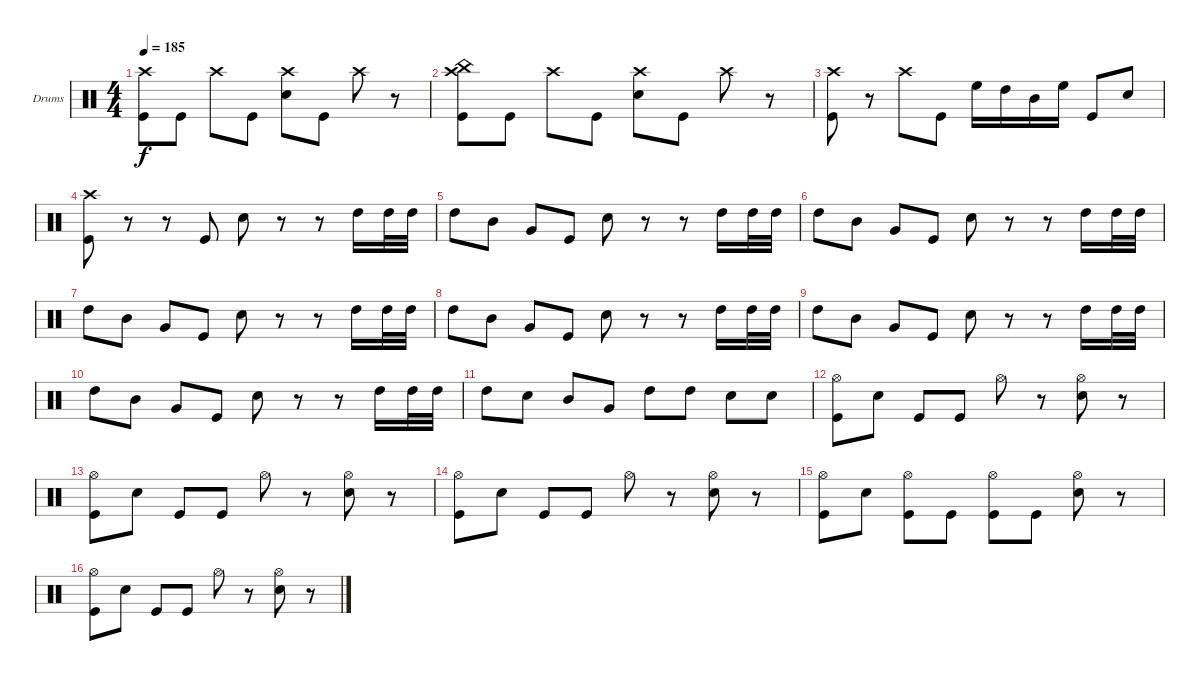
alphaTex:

\defaultSystemsLayout 4
\bracketExtendMode nobrackets
\firstSystemTrackNameOrientation horizontal
\otherSystemsTrackNameOrientation horizontal
\track ("Drumkit" "Drums") {instrument percussion}
\staff {score}
\articulation defaults
\ts (4 4)
\tempo 185
\clef neutral
\ks c
("Crash high (hit)" "Kick (hit)").8{dy f} "Kick (hit)".8 "Crash high (hit)".8 "Kick (hit)".8 ("Crash high (hit)" "Snare (hit) 2").8 "Kick (hit)".8 "Crash high (hit)".8 r.8 |
("Crash high (hit)" "China (hit)" "Kick (hit)").8 "Kick (hit)".8 "Crash high (hit)".8 "Kick (hit)".8 ("Crash high (hit)" "Snare (hit) 2").8 "Kick (hit)".8 "Crash high (hit)".8 r.8 |
("Crash high (hit)" "Kick (hit)").8 r.8 "Crash high (hit)".8 "Kick (hit)".8 "High Floor Tom (hit)".16 "High Tom (hit)".16 "Mid Tom (hit)".16 "High Floor Tom (hit)".16 "Kick (hit)".8 "Snare (hit) 2".8 |
("Crash high (hit)" "Kick (hit)").8 r.8 r.8 "Kick (hit)".8 "Snare (hit) 2".8 r.8 r.8 "High Tom (hit)".16 "High Tom (hit)".32 "High Tom (hit)".32 |
"High Tom (hit)".8 "Mid Tom (hit)".8 "Very Low Tom (hit)".8 "Kick (hit)".8 "Snare (hit) 2".8 r.8 r.8 "High Tom (hit)".16 "High Tom (hit)".32 "High Tom (hit)".32 |
"High Tom (hit)".8 "Mid Tom (hit)".8 "Very Low Tom (hit)".8 "Kick (hit)".8 "Snare (hit) 2".8 r.8 r.8 "High Tom (hit)".16 "High Tom (hit)".32 "High Tom (hit)".32 |
"High Tom (hit)".8 "Mid Tom (hit)".8 "Very Low Tom (hit)".8 "Kick (hit)".8 "Snare (hit) 2".8 r.8 r.8 "High Tom (hit)".16 "High Tom (hit)".32 "High Tom (hit)".32 |
"High Tom (hit)".8 "Mid Tom (hit)".8 "Very Low Tom (hit)".8 "Kick (hit)".8 "Snare (hit) 2".8 r.8 r.8 "High Tom (hit)".16 "High Tom (hit)".32 "High Tom (hit)".32 |
"High Tom (hit)".8 "Mid Tom (hit)".8 "Very Low Tom (hit)".8 "Kick (hit)".8 "Snare (hit) 2".8 r.8 r.8 "High Tom (hit)".16 "High Tom (hit)".32 "High Tom (hit)".32 |
"High Tom (hit)".8 "Mid Tom (hit)".8 "Very Low Tom (hit)".8 "Kick (hit)".8 "Snare (hit) 2".8 r.8 r.8 "High Tom (hit)".16 "High Tom (hit)".32 "High Tom (hit)".32 |
"High Tom (hit)".8 "Snare (hit) 2".8 "Mid Tom (hit)".8 "Very Low Tom (hit)".8 "High Tom (hit)".8 "High Tom (hit)".8 "Snare (hit) 2".8 "Snare (hit) 2".8 |
("Hi-Hat (open)" "Kick (hit)").8 "Snare (hit) 2".8 "Kick (hit)".8 "Kick (hit)".8 "Hi-Hat (open)".8 r.8 ("Hi-Hat (open)" "Snare (hit) 2").8 r.8 |
("Hi-Hat (open)" "Kick (hit)").8 "Snare (hit) 2".8 "Kick (hit)".8 "Kick (hit)".8 "Hi-Hat (open)".8 r.8 ("Hi-Hat (open)" "Snare (hit) 2").8 r.8 |
("Hi-Hat (open)" "Kick (hit)").8 "Snare (hit) 2".8 "Kick (hit)".8 "Kick (hit)".8 "Hi-Hat (open)".8 r.8 ("Hi-Hat (open)" "Snare (hit) 2").8 r.8 |
("Hi-Hat (open)" "Kick (hit)").8 "Snare (hit) 2".8 ("Hi-Hat (open)" "Kick (hit)").8 "Kick (hit)".8 ("Hi-Hat (open)" "Kick (hit)").8 "Kick (hit)".8 ("Hi-Hat (open)" "Snare (hit) 2").8 r.8 |
("Hi-Hat (open)" "Kick (hit)").8 "Snare (hit) 2".8 "Kick (hit)".8 "Kick (hit)".8 "Hi-Hat (open)".8 r.8 ("Hi-Hat (open)" "Snare (hit) 2").8 r.8
